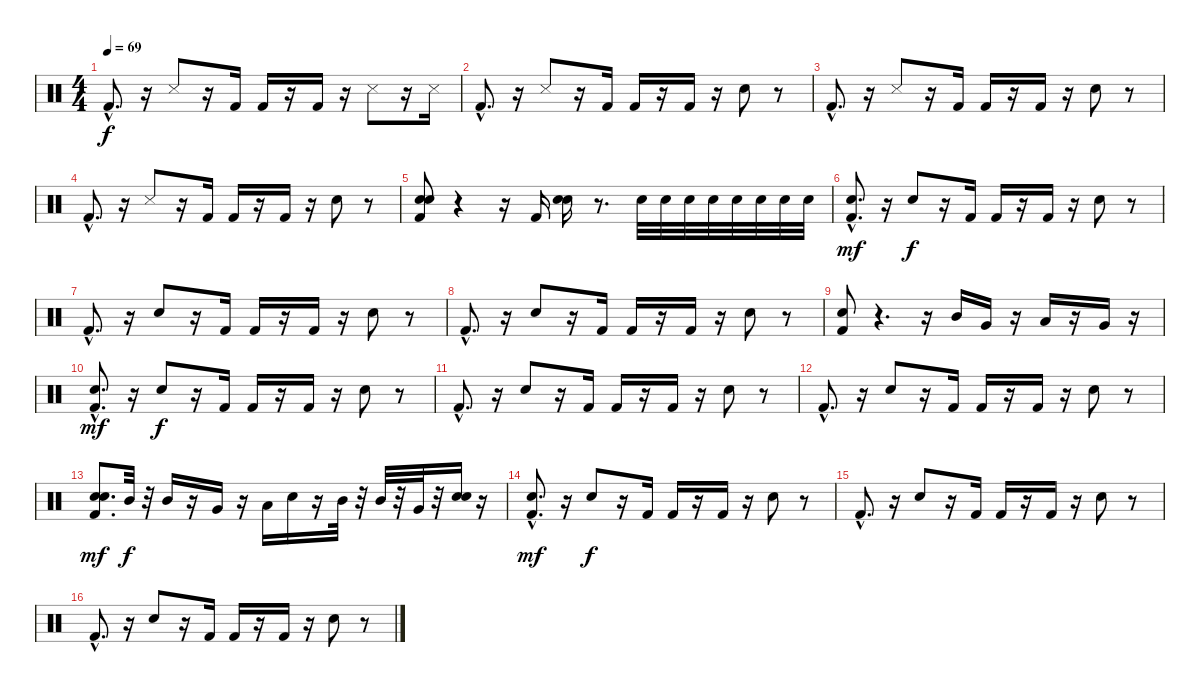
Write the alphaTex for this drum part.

\track "" {instrument percussion}
\staff {score}
\articulation defaults
\ts (4 4)
\tempo 69
\clef neutral
\ks c "Kick (hit) 2"{hac}.8{d dy f}
r.16 "Snare (side stick) 3".8 r.16 "Kick (hit) 2".16 "Kick (hit) 2".16 r.16 "Kick (hit) 2".16 r.16 "Snare (side stick) 3".8 r.16 "Snare (side stick) 3".16 |
"Kick (hit) 2"{hac}.8{d} r.16 "Snare (side stick) 3".8 r.16 "Kick (hit) 2".16 "Kick (hit) 2".16 r.16 "Kick (hit) 2".16 r.16 "Snare (hit) 2".8 r.8 |
"Kick (hit) 2"{hac}.8{d} r.16 "Snare (side stick) 3".8 r.16 "Kick (hit) 2".16 "Kick (hit) 2".16 r.16 "Kick (hit) 2".16 r.16 "Snare (hit) 2".8 r.8 |
"Kick (hit) 2"{hac}.8{d} r.16 "Snare (side stick) 3".8 r.16 "Kick (hit) 2".16 "Kick (hit) 2".16 r.16 "Kick (hit) 2".16 r.16 "Snare (hit) 2".8 r.8 |
("Kick (hit) 2" "Snare (hit) 2" "Electric Snare (hit)").8 r.4 r.16 "Kick (hit) 2".16 ("Snare (hit) 2" "Electric Snare (hit)").16 r.8{d} "Electric Snare (hit)".32 "Electric Snare (hit)".32 "Electric Snare (hit)".32 "Electric Snare (hit)".32 "Electric Snare (hit)".32 "Electric Snare (hit)".32 "Electric Snare (hit)".32 "Electric Snare (hit)".32 |
("Kick (hit) 2"{hac} "Snare (hit) 2").8{d dy mf} r.16 "Snare (hit) 2".8{dy f} r.16 "Kick (hit) 2".16 "Kick (hit) 2".16 r.16 "Kick (hit) 2".16 r.16 "Snare (hit) 2".8 r.8 |
"Kick (hit) 2"{hac}.8{d} r.16 "Snare (hit) 2".8 r.16 "Kick (hit) 2".16 "Kick (hit) 2".16 r.16 "Kick (hit) 2".16 r.16 "Snare (hit) 2".8 r.8 |
"Kick (hit) 2"{hac}.8{d} r.16 "Snare (hit) 2".8 r.16 "Kick (hit) 2".16 "Kick (hit) 2".16 r.16 "Kick (hit) 2".16 r.16 "Snare (hit) 2".8 r.8 |
("Kick (hit) 2" "Snare (hit) 2").8 r.4{d} r.16 "Mid Tom (hit)".16 "Very Low Tom (hit)".16 r.16 "Low Tom (hit)".16 r.16 "Very Low Tom (hit)".16 r.16 |
("Kick (hit) 2"{hac} "Snare (hit) 2").8{d dy mf} r.16 "Snare (hit) 2".8{dy f} r.16 "Kick (hit) 2".16 "Kick (hit) 2".16 r.16 "Kick (hit) 2".16 r.16 "Snare (hit) 2".8 r.8 |
"Kick (hit) 2"{hac}.8{d} r.16 "Snare (hit) 2".8 r.16 "Kick (hit) 2".16 "Kick (hit) 2".16 r.16 "Kick (hit) 2".16 r.16 "Snare (hit) 2".8 r.8 |
"Kick (hit) 2"{hac}.8{d} r.16 "Snare (hit) 2".8 r.16 "Kick (hit) 2".16 "Kick (hit) 2".16 r.16 "Kick (hit) 2".16 r.16 "Snare (hit) 2".8 r.8 |
("Kick (hit) 2" "Electric Snare (hit)" "Snare (hit) 2").8{d dy mf} "Mid Tom (hit)".32{dy f} r.32 "Mid Tom (hit)".16 r.16 "Very Low Tom (hit)".16 r.16 "Low Tom (hit)".16 "Electric Snare (hit)".16 r.16 "Mid Tom (hit)".32 r.32 "Mid Tom (hit)".32 r.32 "Very Low Tom (hit)".32 r.32 ("Electric Snare (hit)" "Snare (hit) 2").16 r.16 |
("Kick (hit) 2"{hac} "Snare (hit) 2").8{d dy mf} r.16 "Snare (hit) 2".8{dy f} r.16 "Kick (hit) 2".16 "Kick (hit) 2".16 r.16 "Kick (hit) 2".16 r.16 "Snare (hit) 2".8 r.8 |
"Kick (hit) 2"{hac}.8{d volume 16 balance 8} r.16 "Snare (hit) 2".8 r.16 "Kick (hit) 2".16 "Kick (hit) 2".16 r.16 "Kick (hit) 2".16 r.16 "Snare (hit) 2".8 r.8 |
"Kick (hit) 2"{hac}.8{d} r.16 "Snare (hit) 2".8 r.16 "Kick (hit) 2".16 "Kick (hit) 2".16 r.16 "Kick (hit) 2".16 r.16 "Snare (hit) 2".8 r.8
